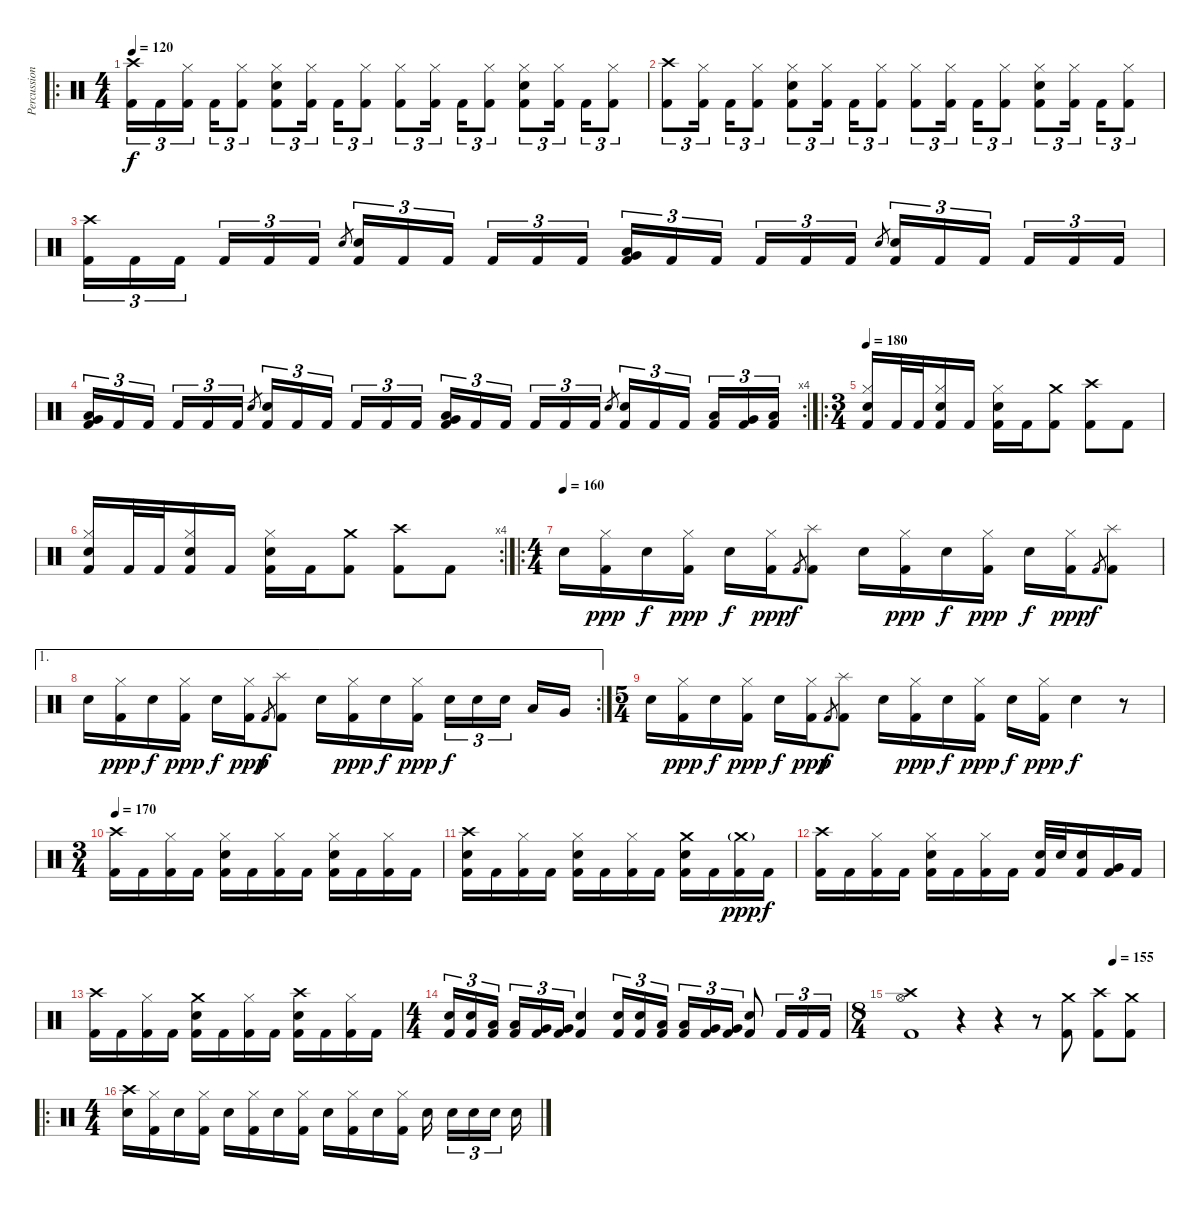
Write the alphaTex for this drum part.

\track ("Percussion" "Percussion") {instrument percussion}
\staff {score}
\articulation defaults
\ro
\ts (4 4)
\tempo 120
\clef neutral
\ks c
("Crash high (hit)" "Kick (hit) 2").16{tu (3 2) dy f} "Kick (hit) 2".16{tu (3 2)} ("Hi-Hat (closed)" "Kick (hit) 2").16{tu (3 2)} "Kick (hit) 2".16{tu (3 2)} ("Hi-Hat (closed)" "Kick (hit) 2").8{tu (3 2)} ("Hi-Hat (closed)" "Snare (hit) 2" "Kick (hit) 2").8{tu (3 2)} ("Hi-Hat (closed)" "Kick (hit) 2").16{tu (3 2)} "Kick (hit) 2".16{tu (3 2)} ("Hi-Hat (closed)" "Kick (hit) 2").8{tu (3 2)} ("Hi-Hat (closed)" "Kick (hit) 2").8{tu (3 2)} ("Hi-Hat (closed)" "Kick (hit) 2").16{tu (3 2)} "Kick (hit) 2".16{tu (3 2)} ("Hi-Hat (closed)" "Kick (hit) 2").8{tu (3 2)} ("Hi-Hat (closed)" "Snare (hit) 2" "Kick (hit) 2").8{tu (3 2)} ("Hi-Hat (closed)" "Kick (hit) 2").16{tu (3 2)} "Kick (hit) 2".16{tu (3 2)} ("Hi-Hat (closed)" "Kick (hit) 2").8{tu (3 2)} |
("Crash high (hit)" "Kick (hit) 2").8{tu (3 2)} ("Hi-Hat (closed)" "Kick (hit) 2").16{tu (3 2)} "Kick (hit) 2".16{tu (3 2)} ("Hi-Hat (closed)" "Kick (hit) 2").8{tu (3 2)} ("Hi-Hat (closed)" "Snare (hit) 2" "Kick (hit) 2").8{tu (3 2)} ("Hi-Hat (closed)" "Kick (hit) 2").16{tu (3 2)} "Kick (hit) 2".16{tu (3 2)} ("Hi-Hat (closed)" "Kick (hit) 2").8{tu (3 2)} ("Hi-Hat (closed)" "Kick (hit) 2").8{tu (3 2)} ("Hi-Hat (closed)" "Kick (hit) 2").16{tu (3 2)} "Kick (hit) 2".16{tu (3 2)} ("Hi-Hat (closed)" "Kick (hit) 2").8{tu (3 2)} ("Hi-Hat (closed)" "Snare (hit) 2" "Kick (hit) 2").8{tu (3 2)} ("Hi-Hat (closed)" "Kick (hit) 2").16{tu (3 2)} "Kick (hit) 2".16{tu (3 2)} ("Hi-Hat (closed)" "Kick (hit) 2").8{tu (3 2)} |
("Crash high (hit)" "Kick (hit) 2").16{tu (3 2)} "Kick (hit) 2".16{tu (3 2)} "Kick (hit) 2".16{tu (3 2)} "Kick (hit) 2".16{tu (3 2)} "Kick (hit) 2".16{tu (3 2)} "Kick (hit) 2".16{tu (3 2)} "Snare (hit) 2".8{gr} ("Snare (hit) 2" "Kick (hit) 2").16{tu (3 2)} "Kick (hit) 2".16{tu (3 2)} "Kick (hit) 2".16{tu (3 2)} "Kick (hit) 2".16{tu (3 2)} "Kick (hit) 2".16{tu (3 2)} "Kick (hit) 2".16{tu (3 2)} ("Low Floor Tom (hit)" "Very Low Tom (hit)" "Kick (hit) 2").16{tu (3 2)} "Kick (hit) 2".16{tu (3 2)} "Kick (hit) 2".16{tu (3 2)} "Kick (hit) 2".16{tu (3 2)} "Kick (hit) 2".16{tu (3 2)} "Kick (hit) 2".16{tu (3 2)} "Snare (hit) 2".8{gr} ("Snare (hit) 2" "Kick (hit) 2").16{tu (3 2)} "Kick (hit) 2".16{tu (3 2)} "Kick (hit) 2".16{tu (3 2)} "Kick (hit) 2".16{tu (3 2)} "Kick (hit) 2".16{tu (3 2)} "Kick (hit) 2".16{tu (3 2)} |
\rc 4
("Low Floor Tom (hit)" "Very Low Tom (hit)" "Kick (hit) 2").16{tu (3 2)} "Kick (hit) 2".16{tu (3 2)} "Kick (hit) 2".16{tu (3 2)} "Kick (hit) 2".16{tu (3 2)} "Kick (hit) 2".16{tu (3 2)} "Kick (hit) 2".16{tu (3 2)} "Snare (hit) 2".8{gr} ("Snare (hit) 2" "Kick (hit) 2").16{tu (3 2)} "Kick (hit) 2".16{tu (3 2)} "Kick (hit) 2".16{tu (3 2)} "Kick (hit) 2".16{tu (3 2)} "Kick (hit) 2".16{tu (3 2)} "Kick (hit) 2".16{tu (3 2)} ("Low Floor Tom (hit)" "Very Low Tom (hit)" "Kick (hit) 2").16{tu (3 2)} "Kick (hit) 2".16{tu (3 2)} "Kick (hit) 2".16{tu (3 2)} "Kick (hit) 2".16{tu (3 2)} "Kick (hit) 2".16{tu (3 2)} "Kick (hit) 2".16{tu (3 2)} "Snare (hit) 2".8{gr} ("Snare (hit) 2" "Kick (hit) 2").16{tu (3 2)} "Kick (hit) 2".16{tu (3 2)} "Kick (hit) 2".16{tu (3 2)} ("Low Tom (hit)" "Kick (hit) 2").16{tu (3 2)} ("Very Low Tom (hit)" "Kick (hit) 2").16{tu (3 2)} ("Low Floor Tom (hit)" "Kick (hit) 2").16{tu (3 2)} |
\ro
\ts (3 4)
\tempo 180
("Hi-Hat (closed)" "Snare (hit) 2" "Kick (hit) 2").16 "Kick (hit) 2".32 "Kick (hit) 2".32 ("Hi-Hat (closed)" "Snare (hit) 2" "Kick (hit) 2").16 "Kick (hit) 2".16 ("Hi-Hat (closed)" "Snare (hit) 2" "Kick (hit) 2").16 "Kick (hit) 2".16 ("Crash medium (hit)" "Kick (hit) 2").8 ("Crash high (hit)" "Kick (hit) 2").8 "Kick (hit) 2".8 |
\rc 4
("Hi-Hat (closed)" "Snare (hit) 2" "Kick (hit) 2").16 "Kick (hit) 2".32 "Kick (hit) 2".32 ("Hi-Hat (closed)" "Snare (hit) 2" "Kick (hit) 2").16 "Kick (hit) 2".16 ("Hi-Hat (closed)" "Snare (hit) 2" "Kick (hit) 2").16 "Kick (hit) 2".16 ("Crash medium (hit)" "Kick (hit) 2").8 ("Crash high (hit)" "Kick (hit) 2").8 "Kick (hit) 2".8 |
\ro
\ts (4 4)
\tempo (160)
"Snare (hit) 2".16 ("Hi-Hat (closed)" "Kick (hit) 2").16{dy ppp} "Snare (hit) 2".16{dy f} ("Hi-Hat (closed)" "Kick (hit) 2").16{dy ppp} "Snare (hit) 2".16{dy f} ("Hi-Hat (closed)" "Kick (hit) 2").16{dy ppp} "Kick (hit) 2".8{gr dy f} ("Splash (hit)" "Kick (hit) 2").8 "Snare (hit) 2".16 ("Hi-Hat (closed)" "Kick (hit) 2").16{dy ppp} "Snare (hit) 2".16{dy f} ("Hi-Hat (closed)" "Kick (hit) 2").16{dy ppp} "Snare (hit) 2".16{dy f} ("Hi-Hat (closed)" "Kick (hit) 2").16{dy ppp} "Kick (hit) 2".8{gr dy f} ("Splash (hit)" "Kick (hit) 2").8 |
\ae 1
\rc 2 "Snare (hit) 2".16
("Hi-Hat (closed)" "Kick (hit) 2").16{dy ppp} "Snare (hit) 2".16{dy f} ("Hi-Hat (closed)" "Kick (hit) 2").16{dy ppp} "Snare (hit) 2".16{dy f} ("Hi-Hat (closed)" "Kick (hit) 2").16{dy ppp} "Kick (hit) 2".8{gr dy f} ("Splash (hit)" "Kick (hit) 2").8 "Snare (hit) 2".16 ("Hi-Hat (closed)" "Kick (hit) 2").16{dy ppp} "Snare (hit) 2".16{dy f} ("Hi-Hat (closed)" "Kick (hit) 2").16{dy ppp} "Snare (hit) 2".16{tu (3 2) dy f} "Snare (hit) 2".16{tu (3 2)} "Snare (hit) 2".16{tu (3 2)} "Low Tom (hit)".16 "Very Low Tom (hit)".16 |
\ts (5 4)
"Snare (hit) 2".16 ("Hi-Hat (closed)" "Kick (hit) 2").16{dy ppp} "Snare (hit) 2".16{dy f} ("Hi-Hat (closed)" "Kick (hit) 2").16{dy ppp} "Snare (hit) 2".16{dy f} ("Hi-Hat (closed)" "Kick (hit) 2").16{dy ppp} "Kick (hit) 2".8{gr dy f} ("Splash (hit)" "Kick (hit) 2").8 "Snare (hit) 2".16 ("Hi-Hat (closed)" "Kick (hit) 2").16{dy ppp} "Snare (hit) 2".16{dy f} ("Hi-Hat (closed)" "Kick (hit) 2").16{dy ppp} "Snare (hit) 2".16{dy f} ("Hi-Hat (closed)" "Kick (hit) 2").16{dy ppp} "Snare (hit) 2".4{dy f} r.8 |
\ts (3 4)
\tempo 170
("Crash high (hit)" "Kick (hit) 2").16 "Kick (hit) 2".16 ("Hi-Hat (closed)" "Kick (hit) 2").16 "Kick (hit) 2".16 ("Hi-Hat (closed)" "Snare (hit) 2" "Kick (hit) 2").16 "Kick (hit) 2".16 ("Hi-Hat (closed)" "Kick (hit) 2").16 "Kick (hit) 2".16 ("Hi-Hat (closed)" "Snare (hit) 2" "Kick (hit) 2").16 "Kick (hit) 2".16 ("Hi-Hat (closed)" "Kick (hit) 2").16 "Kick (hit) 2".16 |
("Crash high (hit)" "Snare (hit) 2" "Kick (hit) 2").16 "Kick (hit) 2".16 ("Hi-Hat (closed)" "Kick (hit) 2").16 "Kick (hit) 2".16 ("Hi-Hat (closed)" "Snare (hit) 2" "Kick (hit) 2").16 "Kick (hit) 2".16 ("Hi-Hat (closed)" "Kick (hit) 2").16 "Kick (hit) 2".16 ("Crash medium (hit)" "Snare (hit) 2" "Kick (hit) 2").16 "Kick (hit) 2".16 ("Crash medium (hit)"{g} "Kick (hit) 2").16{dy ppp} "Kick (hit) 2".16{dy f} |
("Crash high (hit)" "Kick (hit) 2").16 "Kick (hit) 2".16 ("Hi-Hat (closed)" "Kick (hit) 2").16 "Kick (hit) 2".16 ("Hi-Hat (closed)" "Snare (hit) 2" "Kick (hit) 2").16 "Kick (hit) 2".16 ("Hi-Hat (closed)" "Kick (hit) 2").16 "Kick (hit) 2".16 ("Snare (hit) 2" "Kick (hit) 2").32 "Snare (hit) 2".32 ("Snare (hit) 2" "Kick (hit) 2").16 ("Very Low Tom (hit)" "Kick (hit) 2").16 "Kick (hit) 2".16 |
("Crash high (hit)" "Kick (hit) 2").16 "Kick (hit) 2".16 ("Hi-Hat (closed)" "Kick (hit) 2").16 "Kick (hit) 2".16 ("Crash medium (hit)" "Snare (hit) 2" "Kick (hit) 2").16 "Kick (hit) 2".16 ("Hi-Hat (closed)" "Kick (hit) 2").16 "Kick (hit) 2".16 ("Crash high (hit)" "Snare (hit) 2" "Kick (hit) 2").16 "Kick (hit) 2".16 ("Hi-Hat (closed)" "Kick (hit) 2").16 "Kick (hit) 2".16 |
\ts (4 4)
("Snare (hit) 2" "Kick (hit) 2").16{tu (3 2)} ("Snare (hit) 2" "Kick (hit) 2").16{tu (3 2)} ("Low Tom (hit)" "Kick (hit) 2").16{tu (3 2)} ("Low Tom (hit)" "Kick (hit) 2").16{tu (3 2)} ("Very Low Tom (hit)" "Kick (hit) 2").16{tu (3 2)} ("Very Low Tom (hit)" "Kick (hit) 2").16{tu (3 2)} ("Snare (hit) 2" "Kick (hit) 2").4 ("Snare (hit) 2" "Kick (hit) 2").16{tu (3 2)} ("Snare (hit) 2" "Kick (hit) 2").16{tu (3 2)} ("Low Tom (hit)" "Kick (hit) 2").16{tu (3 2)} ("Low Tom (hit)" "Kick (hit) 2").16{tu (3 2)} ("Very Low Tom (hit)" "Kick (hit) 2").16{tu (3 2)} ("Very Low Tom (hit)" "Kick (hit) 2").16{tu (3 2)} ("Snare (hit) 2" "Kick (hit) 2").8 "Kick (hit) 2".16{tu (3 2)} "Kick (hit) 2".16{tu (3 2)} "Kick (hit) 2".16{tu (3 2)} |
\ts (8 4)
\tempo (155 0.8125)
("Crash high (hit)" "Hi-Hat (open)" "Kick (hit) 2").1 r.4 r.4 r.8 ("Crash medium (hit)" "Kick (hit) 2").8 ("Crash high (hit)" "Kick (hit) 2").8 ("Crash medium (hit)" "Kick (hit) 2").8 |
\ro
\ts (4 4)
("Crash high (hit)" "Snare (hit) 2").16 ("Hi-Hat (closed)" "Kick (hit) 2").16 "Snare (hit) 2".16 ("Hi-Hat (closed)" "Kick (hit) 2").16 "Snare (hit) 2".16 ("Hi-Hat (closed)" "Kick (hit) 2").16 "Snare (hit) 2".16 ("Hi-Hat (closed)" "Kick (hit) 2").16 "Snare (hit) 2".16 ("Hi-Hat (closed)" "Kick (hit) 2").16 "Snare (hit) 2".16 ("Hi-Hat (closed)" "Kick (hit) 2").16 "Snare (hit) 2".16 "Snare (hit) 2".16{tu (3 2)} "Snare (hit) 2".16{tu (3 2)} "Snare (hit) 2".16{tu (3 2)} "Snare (hit) 2".16
